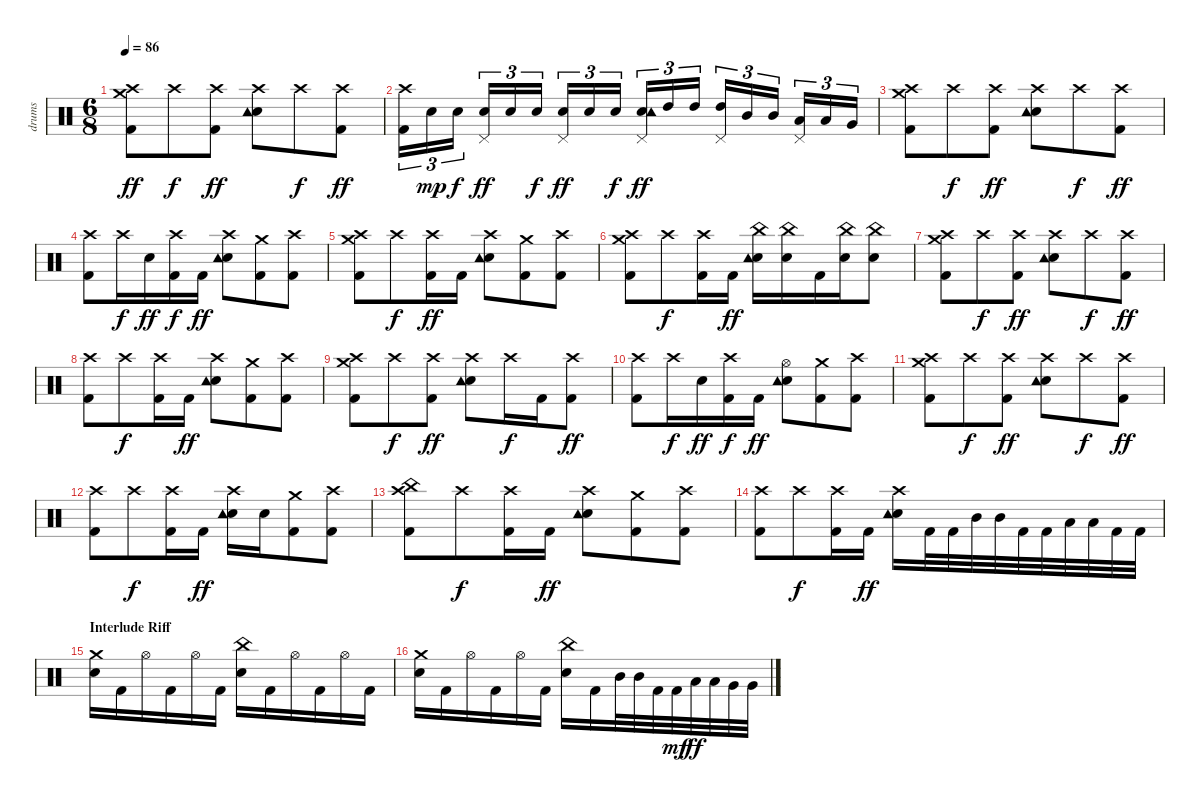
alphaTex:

\track ("drums" "drums") {instrument percussion}
\staff {score}
\articulation defaults
\ts (6 8)
\tempo 86
\clef neutral
\ks c
("Crash high (hit)" "Crash medium (hit)" "Kick (hit) 2").8{dy ff} "Crash high (hit)".8{dy f} ("Crash high (hit)" "Kick (hit) 2").8{dy ff} ("Crash high (hit)" "Snare (hit) 2" "Tambourine (hit)").8 "Crash high (hit)".8{dy f} ("Crash high (hit)" "Kick (hit) 2").8{dy ff} |
("Crash high (hit)" "Kick (hit) 2").16{tu (3 2)} "Snare (hit) 2".16{tu (3 2) dy mp} "Snare (hit) 2".16{tu (3 2) dy f} ("Snare (hit) 2" "Pedal Hi-Hat (hit)").16{tu (3 2) dy ff} "Snare (hit) 2".16{tu (3 2)} "Snare (hit) 2".16{tu (3 2) dy f} ("Snare (hit) 2" "Pedal Hi-Hat (hit)").16{tu (3 2) dy ff} "Snare (hit) 2".16{tu (3 2)} "Snare (hit) 2".16{tu (3 2) dy f} ("Snare (hit) 2" "Tambourine (hit)" "Pedal Hi-Hat (hit)").16{tu (3 2) dy ff} "High Tom (hit)".16{tu (3 2)} "High Tom (hit)".16{tu (3 2)} ("High Tom (hit)" "Pedal Hi-Hat (hit)").16{tu (3 2)} "Mid Tom (hit)".16{tu (3 2)} "Mid Tom (hit)".16{tu (3 2)} ("Low Tom (hit)" "Pedal Hi-Hat (hit)").16{tu (3 2)} "Low Tom (hit)".16{tu (3 2)} "Very Low Tom (hit)".16{tu (3 2)} |
("Crash high (hit)" "Crash medium (hit)" "Kick (hit) 2").8 "Crash high (hit)".8{dy f} ("Crash high (hit)" "Kick (hit) 2").8{dy ff} ("Crash high (hit)" "Snare (hit) 2" "Tambourine (hit)").8 "Crash high (hit)".8{dy f} ("Crash high (hit)" "Kick (hit) 2").8{dy ff} |
("Crash high (hit)" "Kick (hit) 2").8 "Crash high (hit)".16{dy f} "Snare (hit) 2".16{dy ff} ("Crash high (hit)" "Kick (hit) 2").16{dy f} "Kick (hit) 2".16{dy ff} ("Crash high (hit)" "Snare (hit) 2" "Tambourine (hit)").8 ("Crash medium (hit)" "Kick (hit) 2").8 ("Crash high (hit)" "Kick (hit) 2").8 |
("Crash high (hit)" "Crash medium (hit)" "Kick (hit) 2").8 "Crash high (hit)".8{dy f} ("Crash high (hit)" "Kick (hit) 2").16{dy ff} "Kick (hit) 2".16 ("Crash high (hit)" "Snare (hit) 2" "Tambourine (hit)").8 ("Crash medium (hit)" "Kick (hit) 2").8 ("Crash high (hit)" "Kick (hit) 2").8 |
("Crash high (hit)" "Crash medium (hit)" "Kick (hit) 2").8 "Crash high (hit)".8{dy f} ("Crash high (hit)" "Kick (hit) 2").16 "Kick (hit) 2".16{dy ff} ("China (hit)" "Snare (hit) 2" "Tambourine (hit)").16 ("China (hit)" "Snare (hit) 2").16 "Kick (hit) 2".16 ("China (hit)" "Snare (hit) 2").16 ("China (hit)" "Snare (hit) 2").8 |
("Crash high (hit)" "Crash medium (hit)" "Kick (hit) 2").8 "Crash high (hit)".8{dy f} ("Crash high (hit)" "Kick (hit) 2").8{dy ff} ("Crash high (hit)" "Snare (hit) 2" "Tambourine (hit)").8 "Crash high (hit)".8{dy f} ("Crash high (hit)" "Kick (hit) 2").8{dy ff} |
("Crash high (hit)" "Kick (hit) 2").8 "Crash high (hit)".8{dy f} ("Crash high (hit)" "Kick (hit) 2").16 "Kick (hit) 2".16{dy ff} ("Crash high (hit)" "Snare (hit) 2" "Tambourine (hit)").8 ("Crash medium (hit)" "Kick (hit) 2").8 ("Crash high (hit)" "Kick (hit) 2").8 |
("Crash high (hit)" "Crash medium (hit)" "Kick (hit) 2").8 "Crash high (hit)".8{dy f} ("Crash high (hit)" "Kick (hit) 2").8{dy ff} ("Crash high (hit)" "Snare (hit) 2" "Tambourine (hit)").8 "Crash high (hit)".16{dy f} "Kick (hit) 2".16 ("Crash high (hit)" "Kick (hit) 2").8{dy ff} |
("Crash high (hit)" "Kick (hit) 2").8 "Crash high (hit)".16{dy f} "Snare (hit) 2".16{dy ff} ("Crash high (hit)" "Kick (hit) 2").16{dy f} "Kick (hit) 2".16{dy ff} ("Hi-Hat (open)" "Snare (hit) 2" "Tambourine (hit)").8 ("Crash medium (hit)" "Kick (hit) 2").8 ("Crash high (hit)" "Kick (hit) 2").8 |
("Crash high (hit)" "Crash medium (hit)" "Kick (hit) 2").8 "Crash high (hit)".8{dy f} ("Crash high (hit)" "Kick (hit) 2").8{dy ff} ("Crash high (hit)" "Snare (hit) 2" "Tambourine (hit)").8 "Crash high (hit)".8{dy f} ("Crash high (hit)" "Kick (hit) 2").8{dy ff} |
("Crash high (hit)" "Kick (hit) 2").8 "Crash high (hit)".8{dy f} ("Crash high (hit)" "Kick (hit) 2").16 "Kick (hit) 2".16{dy ff} ("Crash high (hit)" "Snare (hit) 2" "Tambourine (hit)").16 "Snare (hit) 2".16 ("Crash medium (hit)" "Kick (hit) 2").8 ("Crash high (hit)" "Kick (hit) 2").8 |
("Crash high (hit)" "China (hit)" "Kick (hit) 2").8 "Crash high (hit)".8{dy f} ("Crash high (hit)" "Kick (hit) 2").16 "Kick (hit) 2".16{dy ff} ("Crash high (hit)" "Snare (hit) 2" "Tambourine (hit)").8 ("Crash medium (hit)" "Kick (hit) 2").8 ("Crash high (hit)" "Kick (hit) 2").8 |
("Crash high (hit)" "Kick (hit) 2").8 "Crash high (hit)".8{dy f} ("Crash high (hit)" "Kick (hit) 2").16 "Kick (hit) 2".16{dy ff} ("Crash high (hit)" "Snare (hit) 2" "Tambourine (hit)").16 "Kick (hit) 2".32 "Kick (hit) 2".32 "Mid Tom (hit)".32 "Mid Tom (hit)".32 "Kick (hit) 2".32 "Kick (hit) 2".32 "Low Tom (hit)".32 "Low Tom (hit)".32 "Kick (hit) 2".32 "Kick (hit) 2".32 |
\section ("" "Interlude Riff")
("Crash medium (hit)" "Snare (hit) 2").16 "Kick (hit) 2".16 "Hi-Hat (open)".16 "Kick (hit) 2".16 "Hi-Hat (open)".16 "Kick (hit) 2".16 ("China (hit)" "Snare (hit) 2").16 "Kick (hit) 2".16 "Hi-Hat (open)".16 "Kick (hit) 2".16 "Hi-Hat (open)".16 "Kick (hit) 2".16 |
("Crash medium (hit)" "Snare (hit) 2").16 "Kick (hit) 2".16 "Hi-Hat (open)".16 "Kick (hit) 2".16 "Hi-Hat (open)".16 "Kick (hit) 2".16 ("China (hit)" "Snare (hit) 2").16 "Kick (hit) 2".16 "Mid Tom (hit)".32 "Mid Tom (hit)".32 "Kick (hit) 2".32 "Kick (hit) 2".32{dy mf} "Low Tom (hit)".32{dy ff} "Low Tom (hit)".32 "Very Low Tom (hit)".32 "Very Low Tom (hit)".32
